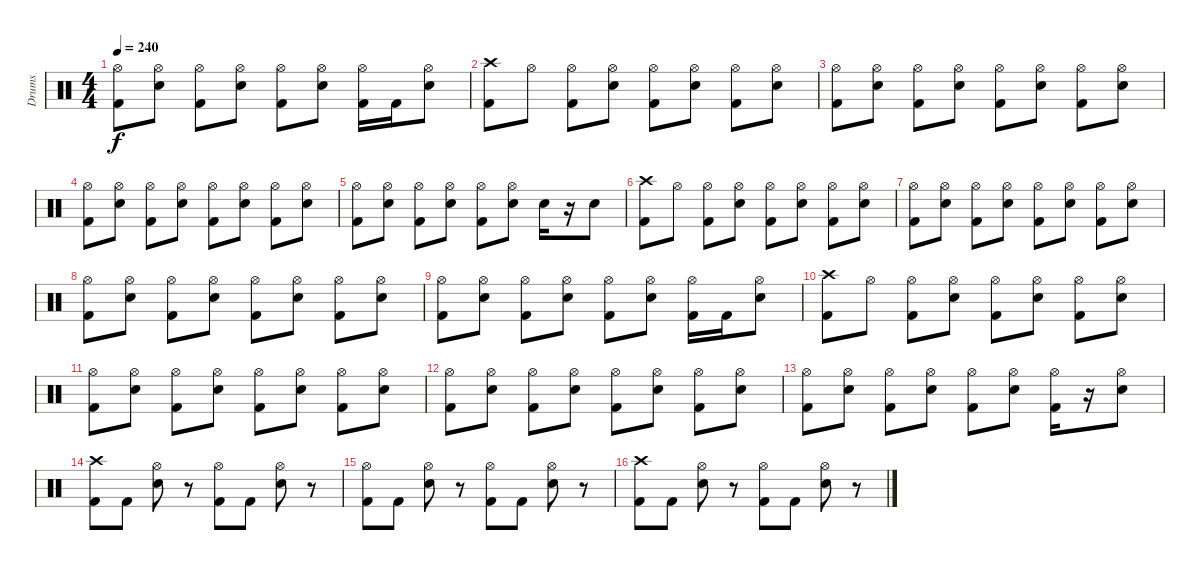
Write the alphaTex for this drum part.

\track ("Drums" "Drums") {instrument percussion}
\staff {score}
\articulation defaults
\ts (4 4)
\tempo 240
\clef neutral
\ks c
("Hi-Hat (open)" "Kick (hit) 2").8{dy f} ("Hi-Hat (open)" "Snare (hit) 2").8 ("Hi-Hat (open)" "Kick (hit) 2").8 ("Hi-Hat (open)" "Snare (hit) 2").8 ("Hi-Hat (open)" "Kick (hit) 2").8 ("Hi-Hat (open)" "Snare (hit) 2").8 ("Hi-Hat (open)" "Kick (hit) 2").16 "Kick (hit) 2".16 ("Hi-Hat (open)" "Snare (hit) 2").8 |
("Crash high (hit)" "Kick (hit) 2").8 "Hi-Hat (open)".8 ("Hi-Hat (open)" "Kick (hit) 2").8 ("Hi-Hat (open)" "Snare (hit) 2").8 ("Hi-Hat (open)" "Kick (hit) 2").8 ("Hi-Hat (open)" "Snare (hit) 2").8 ("Hi-Hat (open)" "Kick (hit) 2").8 ("Hi-Hat (open)" "Snare (hit) 2").8 |
("Hi-Hat (open)" "Kick (hit) 2").8 ("Hi-Hat (open)" "Snare (hit) 2").8 ("Hi-Hat (open)" "Kick (hit) 2").8 ("Hi-Hat (open)" "Snare (hit) 2").8 ("Hi-Hat (open)" "Kick (hit) 2").8 ("Hi-Hat (open)" "Snare (hit) 2").8 ("Hi-Hat (open)" "Kick (hit) 2").8 ("Hi-Hat (open)" "Snare (hit) 2").8 |
("Hi-Hat (open)" "Kick (hit) 2").8 ("Hi-Hat (open)" "Snare (hit) 2").8 ("Hi-Hat (open)" "Kick (hit) 2").8 ("Hi-Hat (open)" "Snare (hit) 2").8 ("Hi-Hat (open)" "Kick (hit) 2").8 ("Hi-Hat (open)" "Snare (hit) 2").8 ("Hi-Hat (open)" "Kick (hit) 2").8 ("Hi-Hat (open)" "Snare (hit) 2").8 |
("Hi-Hat (open)" "Kick (hit) 2").8 ("Hi-Hat (open)" "Snare (hit) 2").8 ("Hi-Hat (open)" "Kick (hit) 2").8 ("Hi-Hat (open)" "Snare (hit) 2").8 ("Hi-Hat (open)" "Kick (hit) 2").8 ("Hi-Hat (open)" "Snare (hit) 2").8 "Snare (hit) 2".16 r.16 "Snare (hit) 2".8 |
("Crash high (hit)" "Kick (hit) 2").8 "Hi-Hat (open)".8 ("Hi-Hat (open)" "Kick (hit) 2").8 ("Hi-Hat (open)" "Snare (hit) 2").8 ("Hi-Hat (open)" "Kick (hit) 2").8 ("Hi-Hat (open)" "Snare (hit) 2").8 ("Hi-Hat (open)" "Kick (hit) 2").8 ("Hi-Hat (open)" "Snare (hit) 2").8 |
("Hi-Hat (open)" "Kick (hit) 2").8 ("Hi-Hat (open)" "Snare (hit) 2").8 ("Hi-Hat (open)" "Kick (hit) 2").8 ("Hi-Hat (open)" "Snare (hit) 2").8 ("Hi-Hat (open)" "Kick (hit) 2").8 ("Hi-Hat (open)" "Snare (hit) 2").8 ("Hi-Hat (open)" "Kick (hit) 2").8 ("Hi-Hat (open)" "Snare (hit) 2").8 |
("Hi-Hat (open)" "Kick (hit) 2").8 ("Hi-Hat (open)" "Snare (hit) 2").8 ("Hi-Hat (open)" "Kick (hit) 2").8 ("Hi-Hat (open)" "Snare (hit) 2").8 ("Hi-Hat (open)" "Kick (hit) 2").8 ("Hi-Hat (open)" "Snare (hit) 2").8 ("Hi-Hat (open)" "Kick (hit) 2").8 ("Hi-Hat (open)" "Snare (hit) 2").8 |
("Hi-Hat (open)" "Kick (hit) 2").8 ("Hi-Hat (open)" "Snare (hit) 2").8 ("Hi-Hat (open)" "Kick (hit) 2").8 ("Hi-Hat (open)" "Snare (hit) 2").8 ("Hi-Hat (open)" "Kick (hit) 2").8 ("Hi-Hat (open)" "Snare (hit) 2").8 ("Hi-Hat (open)" "Kick (hit) 2").16 "Kick (hit) 2".16 ("Hi-Hat (open)" "Snare (hit) 2").8 |
("Crash high (hit)" "Kick (hit) 2").8 "Hi-Hat (open)".8 ("Hi-Hat (open)" "Kick (hit) 2").8 ("Hi-Hat (open)" "Snare (hit) 2").8 ("Hi-Hat (open)" "Kick (hit) 2").8 ("Hi-Hat (open)" "Snare (hit) 2").8 ("Hi-Hat (open)" "Kick (hit) 2").8 ("Hi-Hat (open)" "Snare (hit) 2").8 |
("Hi-Hat (open)" "Kick (hit) 2").8 ("Hi-Hat (open)" "Snare (hit) 2").8 ("Hi-Hat (open)" "Kick (hit) 2").8 ("Hi-Hat (open)" "Snare (hit) 2").8 ("Hi-Hat (open)" "Kick (hit) 2").8 ("Hi-Hat (open)" "Snare (hit) 2").8 ("Hi-Hat (open)" "Kick (hit) 2").8 ("Hi-Hat (open)" "Snare (hit) 2").8 |
("Hi-Hat (open)" "Kick (hit) 2").8 ("Hi-Hat (open)" "Snare (hit) 2").8 ("Hi-Hat (open)" "Kick (hit) 2").8 ("Hi-Hat (open)" "Snare (hit) 2").8 ("Hi-Hat (open)" "Kick (hit) 2").8 ("Hi-Hat (open)" "Snare (hit) 2").8 ("Hi-Hat (open)" "Kick (hit) 2").8 ("Hi-Hat (open)" "Snare (hit) 2").8 |
("Hi-Hat (open)" "Kick (hit) 2").8 ("Hi-Hat (open)" "Snare (hit) 2").8 ("Hi-Hat (open)" "Kick (hit) 2").8 ("Hi-Hat (open)" "Snare (hit) 2").8 ("Hi-Hat (open)" "Kick (hit) 2").8 ("Hi-Hat (open)" "Snare (hit) 2").8 ("Hi-Hat (open)" "Kick (hit) 2").16 r.16 ("Hi-Hat (open)" "Snare (hit) 2").8 |
("Crash high (hit)" "Kick (hit) 2").8 "Kick (hit) 2".8 ("Hi-Hat (open)" "Snare (hit) 2").8 r.8 ("Hi-Hat (open)" "Kick (hit) 2").8 "Kick (hit) 2".8 ("Hi-Hat (open)" "Snare (hit) 2").8 r.8 |
("Hi-Hat (open)" "Kick (hit) 2").8 "Kick (hit) 2".8 ("Hi-Hat (open)" "Snare (hit) 2").8 r.8 ("Hi-Hat (open)" "Kick (hit) 2").8 "Kick (hit) 2".8 ("Hi-Hat (open)" "Snare (hit) 2").8 r.8 |
("Crash high (hit)" "Kick (hit) 2").8 "Kick (hit) 2".8 ("Hi-Hat (open)" "Snare (hit) 2").8 r.8 ("Hi-Hat (open)" "Kick (hit) 2").8 "Kick (hit) 2".8 ("Hi-Hat (open)" "Snare (hit) 2").8 r.8
